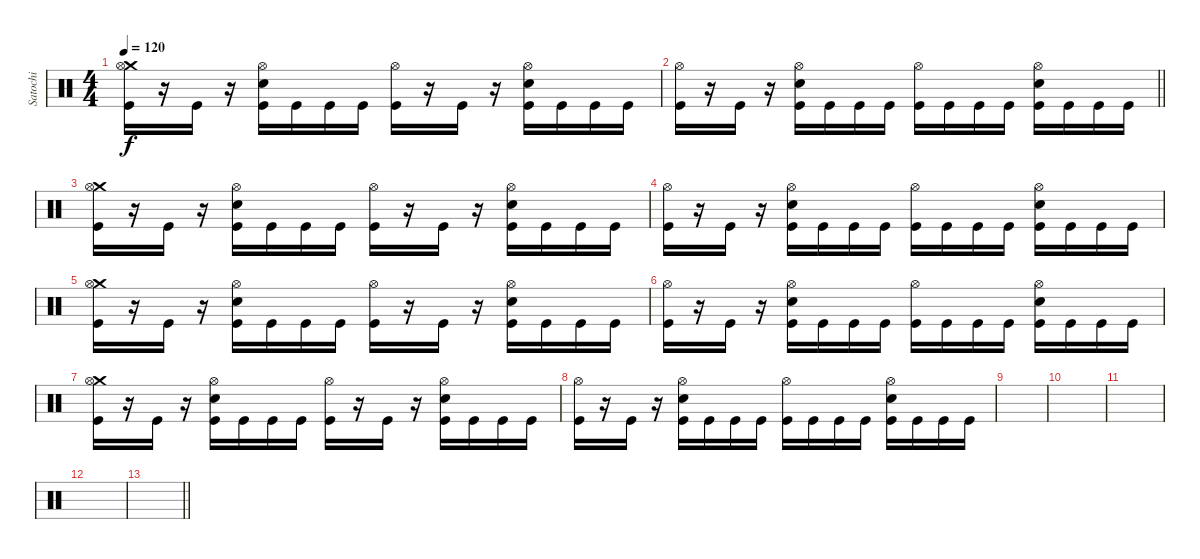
\track ("Satochi" "Satochi") {instrument percussion}
\staff {score}
\articulation defaults
\ts (4 4)
\tempo 120
\clef neutral
\ks c
("Crash medium (hit)" "Hi-Hat (open)" "Kick (hit)").16{dy f} r.16 "Kick (hit)".16 r.16 ("Hi-Hat (open)" "Electric Snare (hit)" "Kick (hit)").16 "Kick (hit)".16 "Kick (hit)".16 "Kick (hit)".16 ("Hi-Hat (open)" "Kick (hit)").16 r.16 "Kick (hit)".16 r.16 ("Hi-Hat (open)" "Electric Snare (hit)" "Kick (hit)").16 "Kick (hit)".16 "Kick (hit)".16 "Kick (hit)".16 |
\barLineRight lightlight
("Hi-Hat (open)" "Kick (hit)").16 r.16 "Kick (hit)".16 r.16 ("Hi-Hat (open)" "Electric Snare (hit)" "Kick (hit)").16 "Kick (hit)".16 "Kick (hit)".16 "Kick (hit)".16 ("Hi-Hat (open)" "Kick (hit)").16 "Kick (hit)".16 "Kick (hit)".16 "Kick (hit)".16 ("Hi-Hat (open)" "Electric Snare (hit)" "Kick (hit)").16 "Kick (hit)".16 "Kick (hit)".16 "Kick (hit)".16 |
("Crash medium (hit)" "Hi-Hat (open)" "Kick (hit)").16 r.16 "Kick (hit)".16 r.16 ("Hi-Hat (open)" "Electric Snare (hit)" "Kick (hit)").16 "Kick (hit)".16 "Kick (hit)".16 "Kick (hit)".16 ("Hi-Hat (open)" "Kick (hit)").16 r.16 "Kick (hit)".16 r.16 ("Hi-Hat (open)" "Electric Snare (hit)" "Kick (hit)").16 "Kick (hit)".16 "Kick (hit)".16 "Kick (hit)".16 |
("Hi-Hat (open)" "Kick (hit)").16 r.16 "Kick (hit)".16 r.16 ("Hi-Hat (open)" "Electric Snare (hit)" "Kick (hit)").16 "Kick (hit)".16 "Kick (hit)".16 "Kick (hit)".16 ("Hi-Hat (open)" "Kick (hit)").16 "Kick (hit)".16 "Kick (hit)".16 "Kick (hit)".16 ("Hi-Hat (open)" "Electric Snare (hit)" "Kick (hit)").16 "Kick (hit)".16 "Kick (hit)".16 "Kick (hit)".16 |
("Crash medium (hit)" "Hi-Hat (open)" "Kick (hit)").16 r.16 "Kick (hit)".16 r.16 ("Hi-Hat (open)" "Electric Snare (hit)" "Kick (hit)").16 "Kick (hit)".16 "Kick (hit)".16 "Kick (hit)".16 ("Hi-Hat (open)" "Kick (hit)").16 r.16 "Kick (hit)".16 r.16 ("Hi-Hat (open)" "Electric Snare (hit)" "Kick (hit)").16 "Kick (hit)".16 "Kick (hit)".16 "Kick (hit)".16 |
("Hi-Hat (open)" "Kick (hit)").16 r.16 "Kick (hit)".16 r.16 ("Hi-Hat (open)" "Electric Snare (hit)" "Kick (hit)").16 "Kick (hit)".16 "Kick (hit)".16 "Kick (hit)".16 ("Hi-Hat (open)" "Kick (hit)").16 "Kick (hit)".16 "Kick (hit)".16 "Kick (hit)".16 ("Hi-Hat (open)" "Electric Snare (hit)" "Kick (hit)").16 "Kick (hit)".16 "Kick (hit)".16 "Kick (hit)".16 |
("Crash medium (hit)" "Hi-Hat (open)" "Kick (hit)").16 r.16 "Kick (hit)".16 r.16 ("Hi-Hat (open)" "Electric Snare (hit)" "Kick (hit)").16 "Kick (hit)".16 "Kick (hit)".16 "Kick (hit)".16 ("Hi-Hat (open)" "Kick (hit)").16 r.16 "Kick (hit)".16 r.16 ("Hi-Hat (open)" "Electric Snare (hit)" "Kick (hit)").16 "Kick (hit)".16 "Kick (hit)".16 "Kick (hit)".16 |
("Hi-Hat (open)" "Kick (hit)").16 r.16 "Kick (hit)".16 r.16 ("Hi-Hat (open)" "Electric Snare (hit)" "Kick (hit)").16 "Kick (hit)".16 "Kick (hit)".16 "Kick (hit)".16 ("Hi-Hat (open)" "Kick (hit)").16 "Kick (hit)".16 "Kick (hit)".16 "Kick (hit)".16 ("Hi-Hat (open)" "Electric Snare (hit)" "Kick (hit)").16 "Kick (hit)".16 "Kick (hit)".16 "Kick (hit)".16 |
|
|
|
|
\barLineRight lightlight
